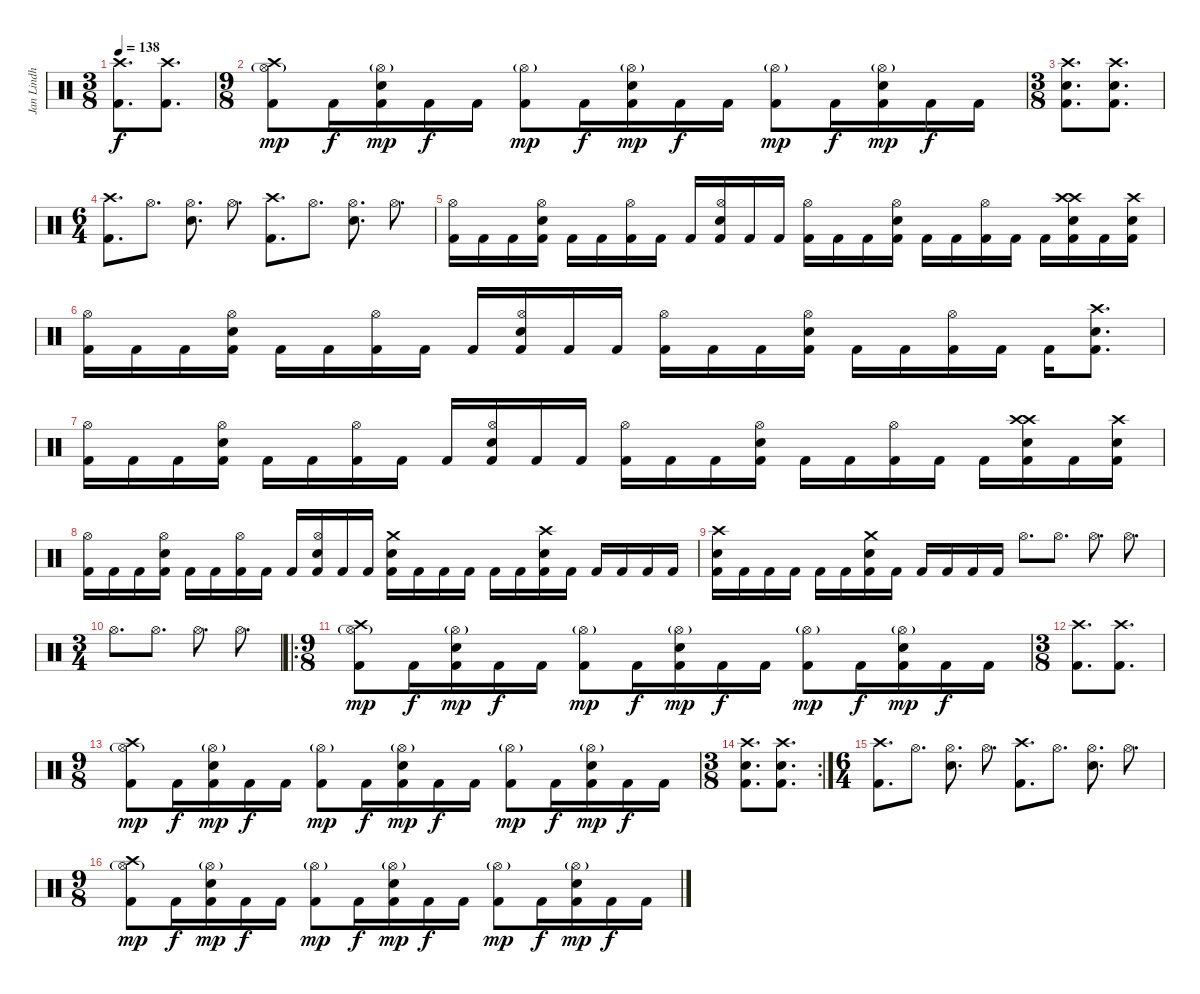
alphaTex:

\track ("Jan Lindh" "Jan Lindh") {instrument percussion}
\staff {score}
\articulation defaults
\ts (3 8)
\tempo 138
\clef neutral
\ks c
("Crash high (hit)" "Kick (hit) 2").8{d dy f} ("Crash high (hit)" "Kick (hit) 2").8{d} |
\ts (9 8)
("Crash high (hit)" "Hi-Hat (open)"{g} "Kick (hit) 2").8{dy mp} "Kick (hit) 2".16{dy f} ("Hi-Hat (open)"{g} "Electric Snare (hit)" "Kick (hit) 2").16{dy mp} "Kick (hit) 2".16{dy f} "Kick (hit) 2".16 ("Hi-Hat (open)"{g} "Kick (hit) 2").8{dy mp} "Kick (hit) 2".16{dy f} ("Hi-Hat (open)"{g} "Electric Snare (hit)" "Kick (hit) 2").16{dy mp} "Kick (hit) 2".16{dy f} "Kick (hit) 2".16 ("Hi-Hat (open)"{g} "Kick (hit) 2").8{dy mp} "Kick (hit) 2".16{dy f} ("Hi-Hat (open)"{g} "Electric Snare (hit)" "Kick (hit) 2").16{dy mp} "Kick (hit) 2".16{dy f} "Kick (hit) 2".16 |
\ts (3 8)
("Crash high (hit)" "Electric Snare (hit)" "Kick (hit) 2").8{d} ("Crash high (hit)" "Electric Snare (hit)" "Kick (hit) 2").8{d} |
\ts (6 4)
("Crash high (hit)" "Kick (hit) 2").8{d} "Hi-Hat (open)".8{d} ("Hi-Hat (open)" "Electric Snare (hit)").8{d} "Hi-Hat (open)".8{d} ("Crash high (hit)" "Kick (hit) 2").8{d} "Hi-Hat (open)".8{d} ("Hi-Hat (open)" "Electric Snare (hit)").8{d} "Hi-Hat (open)".8{d} |
("Hi-Hat (open)" "Kick (hit) 2").16 "Kick (hit) 2".16 "Kick (hit) 2".16 ("Hi-Hat (open)" "Electric Snare (hit)" "Kick (hit) 2").16 "Kick (hit) 2".16 "Kick (hit) 2".16 ("Hi-Hat (open)" "Kick (hit) 2").16 "Kick (hit) 2".16 "Kick (hit) 2".16 ("Hi-Hat (open)" "Electric Snare (hit)" "Kick (hit) 2").16 "Kick (hit) 2".16 "Kick (hit) 2".16 ("Hi-Hat (open)" "Kick (hit) 2").16 "Kick (hit) 2".16 "Kick (hit) 2".16 ("Hi-Hat (open)" "Electric Snare (hit)" "Kick (hit) 2").16 "Kick (hit) 2".16 "Kick (hit) 2".16 ("Hi-Hat (open)" "Kick (hit) 2").16 "Kick (hit) 2".16 "Kick (hit) 2".16 ("Crash high (hit)" "Crash high (hit)" "Electric Snare (hit)" "Kick (hit) 2").16 "Kick (hit) 2".16 ("Crash high (hit)" "Electric Snare (hit)" "Kick (hit) 2").16 |
("Hi-Hat (open)" "Kick (hit) 2").16 "Kick (hit) 2".16 "Kick (hit) 2".16 ("Hi-Hat (open)" "Electric Snare (hit)" "Kick (hit) 2").16 "Kick (hit) 2".16 "Kick (hit) 2".16 ("Hi-Hat (open)" "Kick (hit) 2").16 "Kick (hit) 2".16 "Kick (hit) 2".16 ("Hi-Hat (open)" "Electric Snare (hit)" "Kick (hit) 2").16 "Kick (hit) 2".16 "Kick (hit) 2".16 ("Hi-Hat (open)" "Kick (hit) 2").16 "Kick (hit) 2".16 "Kick (hit) 2".16 ("Hi-Hat (open)" "Electric Snare (hit)" "Kick (hit) 2").16 "Kick (hit) 2".16 "Kick (hit) 2".16 ("Hi-Hat (open)" "Kick (hit) 2").16 "Kick (hit) 2".16 "Kick (hit) 2".16 ("Crash high (hit)" "Electric Snare (hit)" "Kick (hit) 2").8{d} |
("Hi-Hat (open)" "Kick (hit) 2").16 "Kick (hit) 2".16 "Kick (hit) 2".16 ("Hi-Hat (open)" "Electric Snare (hit)" "Kick (hit) 2").16 "Kick (hit) 2".16 "Kick (hit) 2".16 ("Hi-Hat (open)" "Kick (hit) 2").16 "Kick (hit) 2".16 "Kick (hit) 2".16 ("Hi-Hat (open)" "Electric Snare (hit)" "Kick (hit) 2").16 "Kick (hit) 2".16 "Kick (hit) 2".16 ("Hi-Hat (open)" "Kick (hit) 2").16 "Kick (hit) 2".16 "Kick (hit) 2".16 ("Hi-Hat (open)" "Electric Snare (hit)" "Kick (hit) 2").16 "Kick (hit) 2".16 "Kick (hit) 2".16 ("Hi-Hat (open)" "Kick (hit) 2").16 "Kick (hit) 2".16 "Kick (hit) 2".16 ("Crash high (hit)" "Crash high (hit)" "Electric Snare (hit)" "Kick (hit) 2").16 "Kick (hit) 2".16 ("Crash high (hit)" "Electric Snare (hit)" "Kick (hit) 2").16 |
("Hi-Hat (open)" "Kick (hit) 2").16 "Kick (hit) 2".16 "Kick (hit) 2".16 ("Hi-Hat (open)" "Electric Snare (hit)" "Kick (hit) 2").16 "Kick (hit) 2".16 "Kick (hit) 2".16 ("Hi-Hat (open)" "Kick (hit) 2").16 "Kick (hit) 2".16 "Kick (hit) 2".16 ("Hi-Hat (open)" "Electric Snare (hit)" "Kick (hit) 2").16 "Kick (hit) 2".16 "Kick (hit) 2".16 ("Crash medium (hit)" "Electric Snare (hit)" "Kick (hit) 2").16 "Kick (hit) 2".16 "Kick (hit) 2".16 "Kick (hit) 2".16 "Kick (hit) 2".16 "Kick (hit) 2".16 ("Crash high (hit)" "Electric Snare (hit)" "Kick (hit) 2").16 "Kick (hit) 2".16 "Kick (hit) 2".16 "Kick (hit) 2".16 "Kick (hit) 2".16 "Kick (hit) 2".16 |
("Crash high (hit)" "Electric Snare (hit)" "Kick (hit) 2").16 "Kick (hit) 2".16 "Kick (hit) 2".16 "Kick (hit) 2".16 "Kick (hit) 2".16 "Kick (hit) 2".16 ("Crash medium (hit)" "Electric Snare (hit)" "Kick (hit) 2").16 "Kick (hit) 2".16 "Kick (hit) 2".16 "Kick (hit) 2".16 "Kick (hit) 2".16 "Kick (hit) 2".16 "Hi-Hat (open)".8{d} "Hi-Hat (open)".8{d} "Hi-Hat (open)".8{d} "Hi-Hat (open)".8{d} |
\ts (3 4)
"Hi-Hat (open)".8{d} "Hi-Hat (open)".8{d} "Hi-Hat (open)".8{d} "Hi-Hat (open)".8{d} |
\ro
\ts (9 8)
("Crash high (hit)" "Hi-Hat (open)"{g} "Kick (hit) 2").8{dy mp} "Kick (hit) 2".16{dy f} ("Hi-Hat (open)"{g} "Electric Snare (hit)" "Kick (hit) 2").16{dy mp} "Kick (hit) 2".16{dy f} "Kick (hit) 2".16 ("Hi-Hat (open)"{g} "Kick (hit) 2").8{dy mp} "Kick (hit) 2".16{dy f} ("Hi-Hat (open)"{g} "Electric Snare (hit)" "Kick (hit) 2").16{dy mp} "Kick (hit) 2".16{dy f} "Kick (hit) 2".16 ("Hi-Hat (open)"{g} "Kick (hit) 2").8{dy mp} "Kick (hit) 2".16{dy f} ("Hi-Hat (open)"{g} "Electric Snare (hit)" "Kick (hit) 2").16{dy mp} "Kick (hit) 2".16{dy f} "Kick (hit) 2".16 |
\ts (3 8)
("Crash high (hit)" "Kick (hit) 2").8{d} ("Crash high (hit)" "Kick (hit) 2").8{d} |
\ts (9 8)
("Crash high (hit)" "Hi-Hat (open)"{g} "Kick (hit) 2").8{dy mp} "Kick (hit) 2".16{dy f} ("Hi-Hat (open)"{g} "Electric Snare (hit)" "Kick (hit) 2").16{dy mp} "Kick (hit) 2".16{dy f} "Kick (hit) 2".16 ("Hi-Hat (open)"{g} "Kick (hit) 2").8{dy mp} "Kick (hit) 2".16{dy f} ("Hi-Hat (open)"{g} "Electric Snare (hit)" "Kick (hit) 2").16{dy mp} "Kick (hit) 2".16{dy f} "Kick (hit) 2".16 ("Hi-Hat (open)"{g} "Kick (hit) 2").8{dy mp} "Kick (hit) 2".16{dy f} ("Hi-Hat (open)"{g} "Electric Snare (hit)" "Kick (hit) 2").16{dy mp} "Kick (hit) 2".16{dy f} "Kick (hit) 2".16 |
\rc 2
\ts (3 8)
("Crash high (hit)" "Electric Snare (hit)" "Kick (hit) 2").8{d} ("Crash high (hit)" "Electric Snare (hit)" "Kick (hit) 2").8{d} |
\ts (6 4)
("Crash high (hit)" "Kick (hit) 2").8{d} "Hi-Hat (open)".8{d} ("Hi-Hat (open)" "Electric Snare (hit)").8{d} "Hi-Hat (open)".8{d} ("Crash high (hit)" "Kick (hit) 2").8{d} "Hi-Hat (open)".8{d} ("Hi-Hat (open)" "Electric Snare (hit)").8{d} "Hi-Hat (open)".8{d} |
\ts (9 8)
("Crash high (hit)" "Hi-Hat (open)"{g} "Kick (hit) 2").8{dy mp} "Kick (hit) 2".16{dy f} ("Hi-Hat (open)"{g} "Electric Snare (hit)" "Kick (hit) 2").16{dy mp} "Kick (hit) 2".16{dy f} "Kick (hit) 2".16 ("Hi-Hat (open)"{g} "Kick (hit) 2").8{dy mp} "Kick (hit) 2".16{dy f} ("Hi-Hat (open)"{g} "Electric Snare (hit)" "Kick (hit) 2").16{dy mp} "Kick (hit) 2".16{dy f} "Kick (hit) 2".16 ("Hi-Hat (open)"{g} "Kick (hit) 2").8{dy mp} "Kick (hit) 2".16{dy f} ("Hi-Hat (open)"{g} "Electric Snare (hit)" "Kick (hit) 2").16{dy mp} "Kick (hit) 2".16{dy f} "Kick (hit) 2".16
